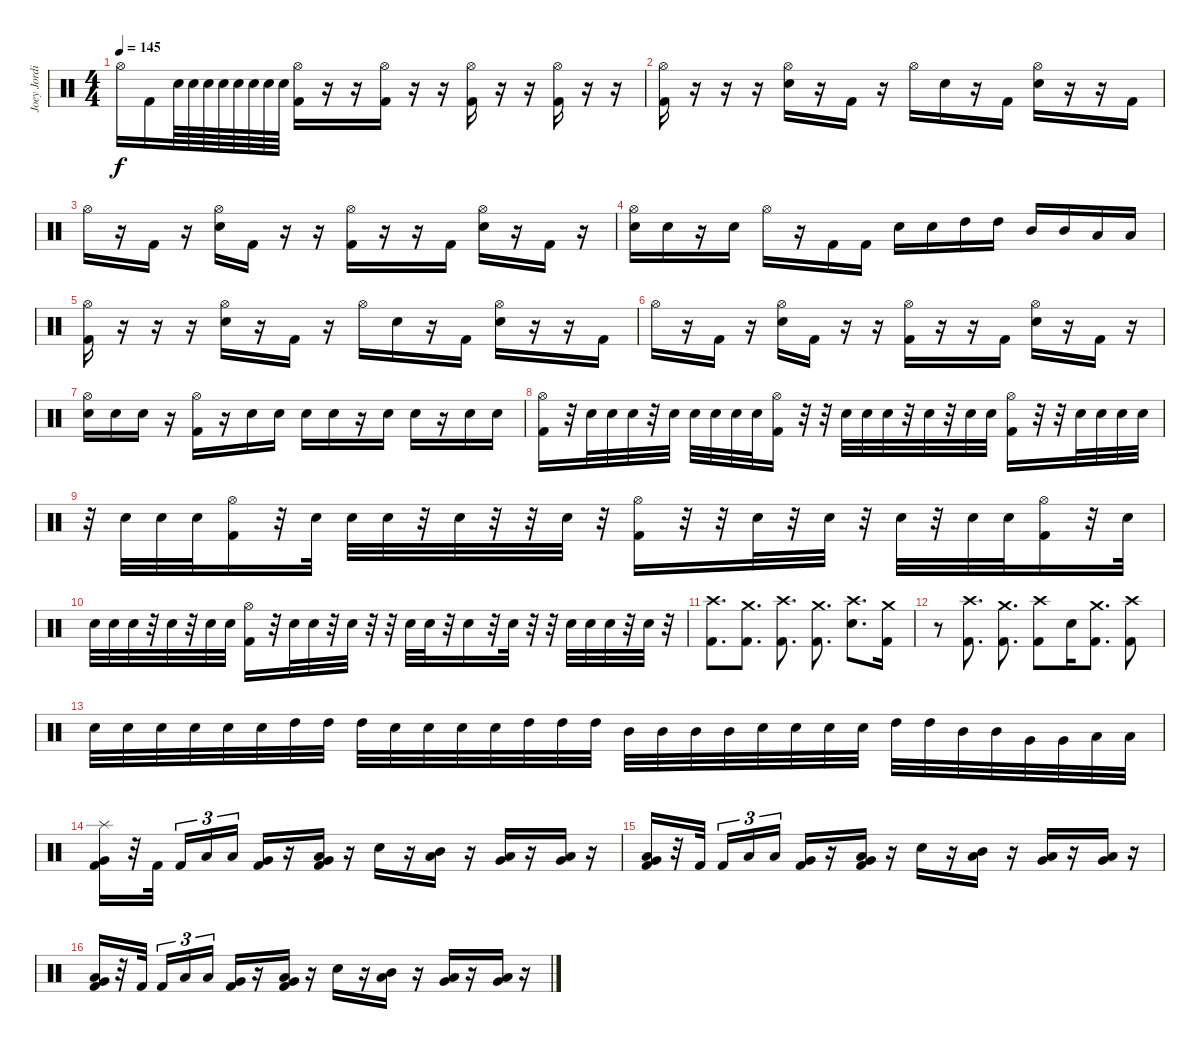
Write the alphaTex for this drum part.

\track ("Joey Jordison" "Joey Jordi") {instrument percussion}
\staff {score}
\articulation defaults
\ts (4 4)
\tempo 145
\clef neutral
\ks c "Hi-Hat (open)".16{dy f} "Kick (hit) 2".16 "Electric Snare (hit)".64 "Electric Snare (hit)".64 "Electric Snare (hit)".64 "Electric Snare (hit)".64 "Electric Snare (hit)".64 "Electric Snare (hit)".64 "Electric Snare (hit)".64 "Electric Snare (hit)".64
("Hi-Hat (open)" "Kick (hit) 2").16 r.16 r.16 ("Hi-Hat (open)" "Kick (hit) 2").16 r.16 r.16 ("Hi-Hat (open)" "Kick (hit) 2").16 r.16 r.16 ("Hi-Hat (open)" "Kick (hit) 2").16 r.16 r.16 |
("Hi-Hat (open)" "Kick (hit) 2").16 r.16 r.16 r.16 ("Hi-Hat (open)" "Electric Snare (hit)").16 r.16 "Kick (hit) 2".16 r.16 "Hi-Hat (open)".16 "Electric Snare (hit)".16 r.16 "Kick (hit) 2".16 ("Hi-Hat (open)" "Electric Snare (hit)").16 r.16 r.16 "Kick (hit) 2".16 |
"Hi-Hat (open)".16 r.16 "Kick (hit) 2".16 r.16 ("Hi-Hat (open)" "Electric Snare (hit)").16 "Kick (hit) 2".16 r.16 r.16 ("Hi-Hat (open)" "Kick (hit) 2").16 r.16 r.16 "Kick (hit) 2".16 ("Hi-Hat (open)" "Electric Snare (hit)").16 r.16 "Kick (hit) 2".16 r.16 |
("Hi-Hat (open)" "Electric Snare (hit)").16 "Electric Snare (hit)".16 r.16 "Electric Snare (hit)".16 "Hi-Hat (open)".16 r.16 "Kick (hit) 2".16 "Kick (hit) 2".16 "Electric Snare (hit)".16 "Electric Snare (hit)".16 "High Tom (hit)".16 "High Tom (hit)".16 "Mid Tom (hit)".16 "Mid Tom (hit)".16 "Low Tom (hit)".16 "Low Tom (hit)".16 |
("Hi-Hat (open)" "Kick (hit) 2").16 r.16 r.16 r.16 ("Hi-Hat (open)" "Electric Snare (hit)").16 r.16 "Kick (hit) 2".16 r.16 "Hi-Hat (open)".16 "Electric Snare (hit)".16 r.16 "Kick (hit) 2".16 ("Hi-Hat (open)" "Electric Snare (hit)").16 r.16 r.16 "Kick (hit) 2".16 |
"Hi-Hat (open)".16 r.16 "Kick (hit) 2".16 r.16 ("Hi-Hat (open)" "Electric Snare (hit)").16 "Kick (hit) 2".16 r.16 r.16 ("Hi-Hat (open)" "Kick (hit) 2").16 r.16 r.16 "Kick (hit) 2".16 ("Hi-Hat (open)" "Electric Snare (hit)").16 r.16 "Kick (hit) 2".16 r.16 |
("Hi-Hat (open)" "Electric Snare (hit)").16 "Electric Snare (hit)".16 "Electric Snare (hit)".16 r.16 ("Hi-Hat (open)" "Kick (hit) 2").16 r.16 "Electric Snare (hit)".16 "Electric Snare (hit)".16 "Electric Snare (hit)".16 "Electric Snare (hit)".16 r.16 "Electric Snare (hit)".16 "Electric Snare (hit)".16 r.16 "Electric Snare (hit)".16 "Electric Snare (hit)".16 |
("Hi-Hat (open)" "Kick (hit) 2").16 r.32 "Electric Snare (hit)".32 "Electric Snare (hit)".32 "Electric Snare (hit)".32 r.32 "Electric Snare (hit)".32 "Electric Snare (hit)".32 "Electric Snare (hit)".32 "Electric Snare (hit)".32 "Electric Snare (hit)".32 ("Hi-Hat (open)" "Kick (hit) 2").16 r.32 r.32 "Electric Snare (hit)".32 "Electric Snare (hit)".32 "Electric Snare (hit)".32 r.32 "Electric Snare (hit)".32 r.32 "Electric Snare (hit)".32 "Electric Snare (hit)".32 ("Hi-Hat (open)" "Kick (hit) 2").16 r.32 r.32 "Electric Snare (hit)".32 "Electric Snare (hit)".32 "Electric Snare (hit)".32 "Electric Snare (hit)".32 |
r.32 "Electric Snare (hit)".32 "Electric Snare (hit)".32 "Electric Snare (hit)".32 ("Hi-Hat (open)" "Kick (hit) 2").16 r.32 "Electric Snare (hit)".32 "Electric Snare (hit)".32 "Electric Snare (hit)".32 r.32 "Electric Snare (hit)".32 r.32 r.32 "Electric Snare (hit)".32 r.32 ("Hi-Hat (open)" "Kick (hit) 2").16 r.32 r.32 "Electric Snare (hit)".32 r.32 "Electric Snare (hit)".32 r.32 "Electric Snare (hit)".32 r.32 "Electric Snare (hit)".32 "Electric Snare (hit)".32 ("Hi-Hat (open)" "Kick (hit) 2").16 r.32 "Electric Snare (hit)".32 |
"Electric Snare (hit)".32 "Electric Snare (hit)".32 "Electric Snare (hit)".32 r.32 "Electric Snare (hit)".32 r.32 "Electric Snare (hit)".32 "Electric Snare (hit)".32 ("Hi-Hat (open)" "Kick (hit) 2").16 r.32 "Electric Snare (hit)".32 "Electric Snare (hit)".32 r.32 "Electric Snare (hit)".32 r.32 r.32 "Electric Snare (hit)".32 "Electric Snare (hit)".32 r.32 "Electric Snare (hit)".16 r.32 "Electric Snare (hit)".32 r.32 r.32 "Electric Snare (hit)".32 "Electric Snare (hit)".32 "Electric Snare (hit)".32 r.32 "Electric Snare (hit)".32 r.32 |
("Crash high (hit)" "Kick (hit) 2").8{d} ("Crash medium (hit)" "Kick (hit) 2").8{d} ("Crash high (hit)" "Kick (hit) 2").8{d} ("Crash medium (hit)" "Kick (hit) 2").8{d} ("Crash high (hit)" "Electric Snare (hit)").8{d} ("Crash medium (hit)" "Kick (hit) 2").16 |
r.8 ("Crash high (hit)" "Kick (hit) 2").8{d} ("Crash medium (hit)" "Kick (hit) 2").8{d} ("Crash high (hit)" "Kick (hit) 2").8 "Electric Snare (hit)".16 ("Crash medium (hit)" "Kick (hit) 2").8{d} ("Crash high (hit)" "Kick (hit) 2").8 |
"Electric Snare (hit)".32 "Electric Snare (hit)".32 "Electric Snare (hit)".32 "Electric Snare (hit)".32 "Electric Snare (hit)".32 "Electric Snare (hit)".32 "High Tom (hit)".32 "High Tom (hit)".32 "High Tom (hit)".32 "Electric Snare (hit)".32 "Electric Snare (hit)".32 "Electric Snare (hit)".32 "Electric Snare (hit)".32 "High Tom (hit)".32 "High Tom (hit)".32 "High Tom (hit)".32 "Mid Tom (hit)".32 "Mid Tom (hit)".32 "Mid Tom (hit)".32 "Mid Tom (hit)".32 "Electric Snare (hit)".32 "Electric Snare (hit)".32 "Electric Snare (hit)".32 "Electric Snare (hit)".32 "High Tom (hit)".32 "High Tom (hit)".32 "Mid Tom (hit)".32 "Mid Tom (hit)".32 "Very Low Tom (hit)".32 "Very Low Tom (hit)".32 "Low Floor Tom (hit)".32 "Low Floor Tom (hit)".32 |
("Very Low Tom (hit)" "Splash (hit)" "Kick (hit) 2").16 r.32 "Kick (hit) 2".32{beam splitsecondary} "Kick (hit) 2".16{tu (3 2)} "Low Tom (hit)".16{tu (3 2)} "Low Floor Tom (hit)".16{tu (3 2)} ("Very Low Tom (hit)" "Kick (hit) 2").16 r.16 ("Very Low Tom (hit)" "Low Floor Tom (hit)" "Kick (hit) 2").16 r.16 "Electric Snare (hit)".16 r.16 ("Mid Tom (hit)" "Low Tom (hit)").16 r.16 ("Low Tom (hit)" "Very Low Tom (hit)").16 r.16 ("Low Tom (hit)" "Very Low Tom (hit)").16 r.16 |
("Very Low Tom (hit)" "Low Floor Tom (hit)" "Kick (hit) 2").16 r.32 "Kick (hit) 2".32{beam splitsecondary} "Kick (hit) 2".16{tu (3 2)} "Low Tom (hit)".16{tu (3 2)} "Low Floor Tom (hit)".16{tu (3 2)} ("Very Low Tom (hit)" "Kick (hit) 2").16 r.16 ("Very Low Tom (hit)" "Low Floor Tom (hit)" "Kick (hit) 2").16 r.16 "Electric Snare (hit)".16 r.16 ("Mid Tom (hit)" "Low Tom (hit)").16 r.16 ("Low Tom (hit)" "Very Low Tom (hit)").16 r.16 ("Low Tom (hit)" "Very Low Tom (hit)").16 r.16 |
("Very Low Tom (hit)" "Low Floor Tom (hit)" "Kick (hit) 2").16 r.32 "Kick (hit) 2".32{beam splitsecondary} "Kick (hit) 2".16{tu (3 2)} "Low Tom (hit)".16{tu (3 2)} "Low Floor Tom (hit)".16{tu (3 2)} ("Very Low Tom (hit)" "Kick (hit) 2").16 r.16 ("Very Low Tom (hit)" "Low Floor Tom (hit)" "Kick (hit) 2").16 r.16 "Electric Snare (hit)".16 r.16 ("Mid Tom (hit)" "Low Tom (hit)").16 r.16 ("Low Tom (hit)" "Very Low Tom (hit)").16 r.16 ("Low Tom (hit)" "Very Low Tom (hit)").16 r.16
